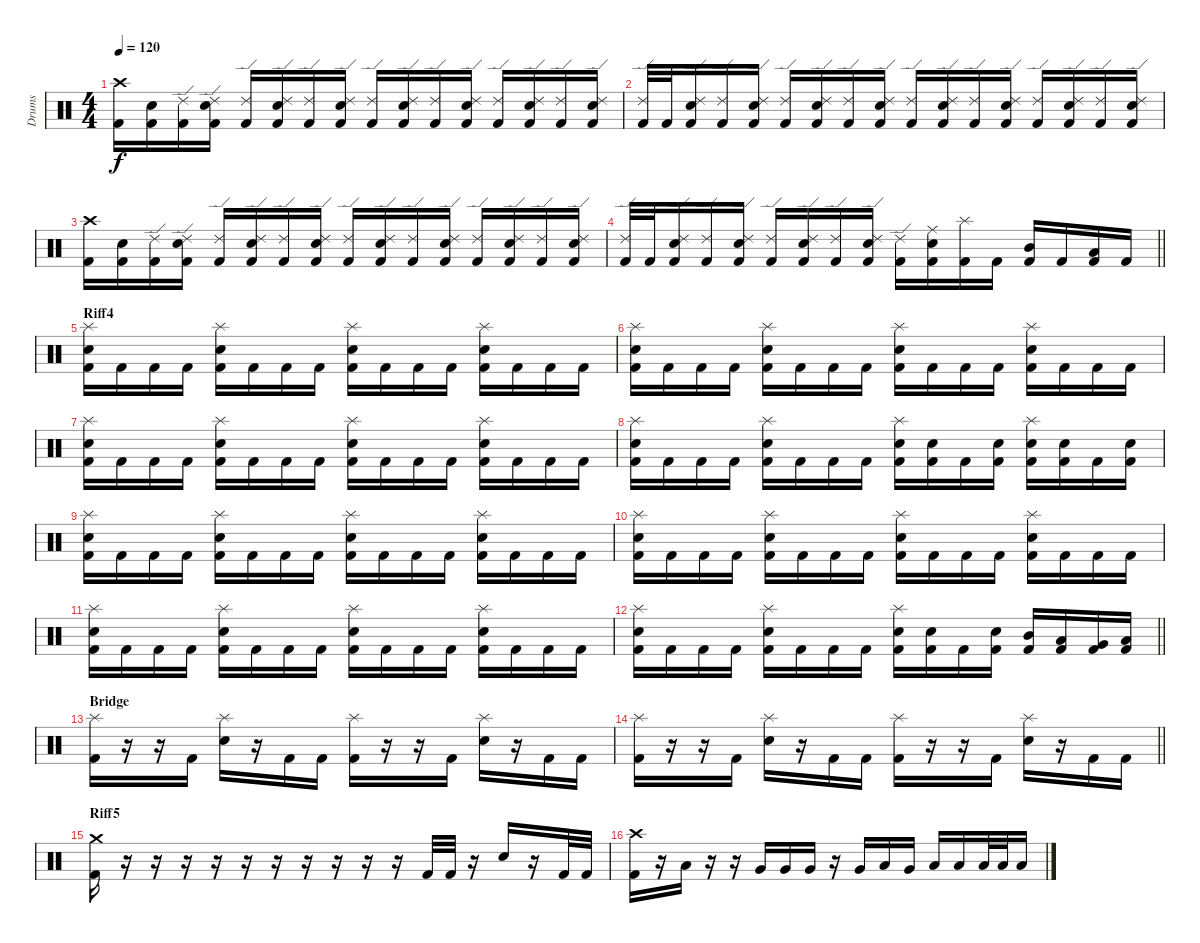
\track ("Drums" "Drums") {instrument percussion}
\staff {score}
\articulation defaults
\ts (4 4)
\tempo 120
\clef neutral
\ks c
("Kick (hit) 2" "Crash high (hit)").16{dy f} ("Kick (hit) 2" "Snare (hit) 2").16 ("Kick (hit) 2" "Ride (edge) 2").16 ("Kick (hit) 2" "Ride (edge) 2" "Snare (hit) 2").16 ("Kick (hit) 2" "Ride (edge) 2").16 ("Kick (hit) 2" "Ride (edge) 2" "Snare (hit) 2").16 ("Kick (hit) 2" "Ride (edge) 2").16 ("Kick (hit) 2" "Ride (edge) 2" "Snare (hit) 2").16 ("Kick (hit) 2" "Ride (edge) 2").16 ("Kick (hit) 2" "Ride (edge) 2" "Snare (hit) 2").16 ("Kick (hit) 2" "Ride (edge) 2").16 ("Kick (hit) 2" "Ride (edge) 2" "Snare (hit) 2").16 ("Kick (hit) 2" "Ride (edge) 2").16 ("Kick (hit) 2" "Ride (edge) 2" "Snare (hit) 2").16 ("Kick (hit) 2" "Ride (edge) 2").16 ("Kick (hit) 2" "Ride (edge) 2" "Snare (hit) 2").16 |
("Kick (hit) 2" "Ride (edge) 2").32 "Kick (hit) 2".32 ("Kick (hit) 2" "Ride (edge) 2" "Snare (hit) 2").16 ("Kick (hit) 2" "Ride (edge) 2").16 ("Kick (hit) 2" "Ride (edge) 2" "Snare (hit) 2").16 ("Kick (hit) 2" "Ride (edge) 2").16 ("Kick (hit) 2" "Ride (edge) 2" "Snare (hit) 2").16 ("Kick (hit) 2" "Ride (edge) 2").16 ("Kick (hit) 2" "Ride (edge) 2" "Snare (hit) 2").16 ("Kick (hit) 2" "Ride (edge) 2").16 ("Kick (hit) 2" "Ride (edge) 2" "Snare (hit) 2").16 ("Kick (hit) 2" "Ride (edge) 2").16 ("Kick (hit) 2" "Ride (edge) 2" "Snare (hit) 2").16 ("Kick (hit) 2" "Ride (edge) 2").16 ("Kick (hit) 2" "Ride (edge) 2" "Snare (hit) 2").16 ("Kick (hit) 2" "Ride (edge) 2").16 ("Kick (hit) 2" "Ride (edge) 2" "Snare (hit) 2").16 |
("Kick (hit) 2" "Crash high (hit)").16 ("Kick (hit) 2" "Snare (hit) 2").16 ("Kick (hit) 2" "Ride (edge) 2").16 ("Kick (hit) 2" "Ride (edge) 2" "Snare (hit) 2").16 ("Kick (hit) 2" "Ride (edge) 2").16 ("Kick (hit) 2" "Ride (edge) 2" "Snare (hit) 2").16 ("Kick (hit) 2" "Ride (edge) 2").16 ("Kick (hit) 2" "Ride (edge) 2" "Snare (hit) 2").16 ("Kick (hit) 2" "Ride (edge) 2").16 ("Kick (hit) 2" "Ride (edge) 2" "Snare (hit) 2").16 ("Kick (hit) 2" "Ride (edge) 2").16 ("Kick (hit) 2" "Ride (edge) 2" "Snare (hit) 2").16 ("Kick (hit) 2" "Ride (edge) 2").16 ("Kick (hit) 2" "Ride (edge) 2" "Snare (hit) 2").16 ("Kick (hit) 2" "Ride (edge) 2").16 ("Kick (hit) 2" "Ride (edge) 2" "Snare (hit) 2").16 |
\barLineRight lightlight
("Kick (hit) 2" "Ride (edge) 2").32 "Kick (hit) 2".32 ("Kick (hit) 2" "Ride (edge) 2" "Snare (hit) 2").16 ("Kick (hit) 2" "Ride (edge) 2").16 ("Kick (hit) 2" "Ride (edge) 2" "Snare (hit) 2").16 ("Kick (hit) 2" "Ride (edge) 2").16 ("Kick (hit) 2" "Ride (edge) 2" "Snare (hit) 2").16 ("Kick (hit) 2" "Ride (edge) 2").16 ("Kick (hit) 2" "Ride (edge) 2" "Snare (hit) 2").16 ("Kick (hit) 2" "Ride (edge) 2").16 ("Kick (hit) 2" "Ride (middle)" "Snare (hit) 2").16 ("Kick (hit) 2" "Splash (hit)").16 "Kick (hit) 2".16 ("Kick (hit) 2" "Mid Tom (hit)").16 "Kick (hit) 2".16 ("Kick (hit) 2" "Low Tom (hit)").16 "Kick (hit) 2".16 |
\section ("" "Riff4")
("Kick (hit) 2" "Splash (hit)" "Snare (hit) 2").16 "Kick (hit) 2".16 "Kick (hit) 2".16 "Kick (hit) 2".16 ("Kick (hit) 2" "Splash (hit)" "Snare (hit) 2").16 "Kick (hit) 2".16 "Kick (hit) 2".16 "Kick (hit) 2".16 ("Kick (hit) 2" "Splash (hit)" "Snare (hit) 2").16 "Kick (hit) 2".16 "Kick (hit) 2".16 "Kick (hit) 2".16 ("Kick (hit) 2" "Splash (hit)" "Snare (hit) 2").16 "Kick (hit) 2".16 "Kick (hit) 2".16 "Kick (hit) 2".16 |
("Kick (hit) 2" "Splash (hit)" "Snare (hit) 2").16 "Kick (hit) 2".16 "Kick (hit) 2".16 "Kick (hit) 2".16 ("Kick (hit) 2" "Splash (hit)" "Snare (hit) 2").16 "Kick (hit) 2".16 "Kick (hit) 2".16 "Kick (hit) 2".16 ("Kick (hit) 2" "Splash (hit)" "Snare (hit) 2").16 "Kick (hit) 2".16 "Kick (hit) 2".16 "Kick (hit) 2".16 ("Kick (hit) 2" "Splash (hit)" "Snare (hit) 2").16 "Kick (hit) 2".16 "Kick (hit) 2".16 "Kick (hit) 2".16 |
("Kick (hit) 2" "Splash (hit)" "Snare (hit) 2").16 "Kick (hit) 2".16 "Kick (hit) 2".16 "Kick (hit) 2".16 ("Kick (hit) 2" "Splash (hit)" "Snare (hit) 2").16 "Kick (hit) 2".16 "Kick (hit) 2".16 "Kick (hit) 2".16 ("Kick (hit) 2" "Splash (hit)" "Snare (hit) 2").16 "Kick (hit) 2".16 "Kick (hit) 2".16 "Kick (hit) 2".16 ("Kick (hit) 2" "Splash (hit)" "Snare (hit) 2").16 "Kick (hit) 2".16 "Kick (hit) 2".16 "Kick (hit) 2".16 |
("Kick (hit) 2" "Splash (hit)" "Snare (hit) 2").16 "Kick (hit) 2".16 "Kick (hit) 2".16 "Kick (hit) 2".16 ("Kick (hit) 2" "Splash (hit)" "Snare (hit) 2").16 "Kick (hit) 2".16 "Kick (hit) 2".16 "Kick (hit) 2".16 ("Kick (hit) 2" "Splash (hit)" "Snare (hit) 2").16 ("Kick (hit) 2" "Snare (hit) 2").16 "Kick (hit) 2".16 ("Kick (hit) 2" "Snare (hit) 2").16 ("Kick (hit) 2" "Splash (hit)" "Snare (hit) 2").16 ("Kick (hit) 2" "Snare (hit) 2").16 "Kick (hit) 2".16 ("Kick (hit) 2" "Snare (hit) 2").16 |
("Kick (hit) 2" "Splash (hit)" "Snare (hit) 2").16 "Kick (hit) 2".16 "Kick (hit) 2".16 "Kick (hit) 2".16 ("Kick (hit) 2" "Splash (hit)" "Snare (hit) 2").16 "Kick (hit) 2".16 "Kick (hit) 2".16 "Kick (hit) 2".16 ("Kick (hit) 2" "Splash (hit)" "Snare (hit) 2").16 "Kick (hit) 2".16 "Kick (hit) 2".16 "Kick (hit) 2".16 ("Kick (hit) 2" "Splash (hit)" "Snare (hit) 2").16 "Kick (hit) 2".16 "Kick (hit) 2".16 "Kick (hit) 2".16 |
("Kick (hit) 2" "Splash (hit)" "Snare (hit) 2").16 "Kick (hit) 2".16 "Kick (hit) 2".16 "Kick (hit) 2".16 ("Kick (hit) 2" "Splash (hit)" "Snare (hit) 2").16 "Kick (hit) 2".16 "Kick (hit) 2".16 "Kick (hit) 2".16 ("Kick (hit) 2" "Splash (hit)" "Snare (hit) 2").16 "Kick (hit) 2".16 "Kick (hit) 2".16 "Kick (hit) 2".16 ("Kick (hit) 2" "Splash (hit)" "Snare (hit) 2").16 "Kick (hit) 2".16 "Kick (hit) 2".16 "Kick (hit) 2".16 |
("Kick (hit) 2" "Splash (hit)" "Snare (hit) 2").16 "Kick (hit) 2".16 "Kick (hit) 2".16 "Kick (hit) 2".16 ("Kick (hit) 2" "Splash (hit)" "Snare (hit) 2").16 "Kick (hit) 2".16 "Kick (hit) 2".16 "Kick (hit) 2".16 ("Kick (hit) 2" "Splash (hit)" "Snare (hit) 2").16 "Kick (hit) 2".16 "Kick (hit) 2".16 "Kick (hit) 2".16 ("Kick (hit) 2" "Splash (hit)" "Snare (hit) 2").16 "Kick (hit) 2".16 "Kick (hit) 2".16 "Kick (hit) 2".16 |
\barLineRight lightlight
("Kick (hit) 2" "Splash (hit)" "Snare (hit) 2").16 "Kick (hit) 2".16 "Kick (hit) 2".16 "Kick (hit) 2".16 ("Kick (hit) 2" "Splash (hit)" "Snare (hit) 2").16 "Kick (hit) 2".16 "Kick (hit) 2".16 "Kick (hit) 2".16 ("Kick (hit) 2" "Splash (hit)" "Snare (hit) 2").16 ("Kick (hit) 2" "Snare (hit) 2").16 "Kick (hit) 2".16 ("Kick (hit) 2" "Snare (hit) 2").16 ("Kick (hit) 2" "Mid Tom (hit)").16 ("Kick (hit) 2" "Low Tom (hit)").16 ("Kick (hit) 2" "Very Low Tom (hit)").16 ("Kick (hit) 2" "Low Floor Tom (hit)").16 |
\section ("" "Bridge")
("Kick (hit) 2" "Splash (hit)").16 r.16 r.16 "Kick (hit) 2".16 ("Splash (hit)" "Snare (hit) 2").16 r.16 "Kick (hit) 2".16 "Kick (hit) 2".16 ("Kick (hit) 2" "Splash (hit)").16 r.16 r.16 "Kick (hit) 2".16 ("Splash (hit)" "Snare (hit) 2").16 r.16 "Kick (hit) 2".16 "Kick (hit) 2".16 |
\barLineRight lightlight
("Kick (hit) 2" "Splash (hit)").16 r.16 r.16 "Kick (hit) 2".16 ("Splash (hit)" "Snare (hit) 2").16 r.16 "Kick (hit) 2".16 "Kick (hit) 2".16 ("Kick (hit) 2" "Splash (hit)").16 r.16 r.16 "Kick (hit) 2".16 ("Splash (hit)" "Snare (hit) 2").16 r.16 "Kick (hit) 2".16 "Kick (hit) 2".16 |
\section ("" "Riff5")
("Kick (hit) 2" "Crash medium (hit)").16 r.16 r.16 r.16 r.16 r.16 r.16 r.16 r.16 r.16 r.16 "Kick (hit) 2".32 "Kick (hit) 2".32 r.16 "Snare (hit) 2".16 r.16 "Kick (hit) 2".32 "Kick (hit) 2".32 |
("Kick (hit) 2" "Crash high (hit)").16 r.16 "Low Tom (hit)".16 r.16 r.16 "Very Low Tom (hit)".16 "Very Low Tom (hit)".16 "Very Low Tom (hit)".16 r.16 "Very Low Tom (hit)".16 "Low Tom (hit)".16 "Very Low Tom (hit)".16 "Low Floor Tom (hit)".16 "Low Floor Tom (hit)".16 "Low Floor Tom (hit)".32 "Low Floor Tom (hit)".32 "Low Floor Tom (hit)".16
